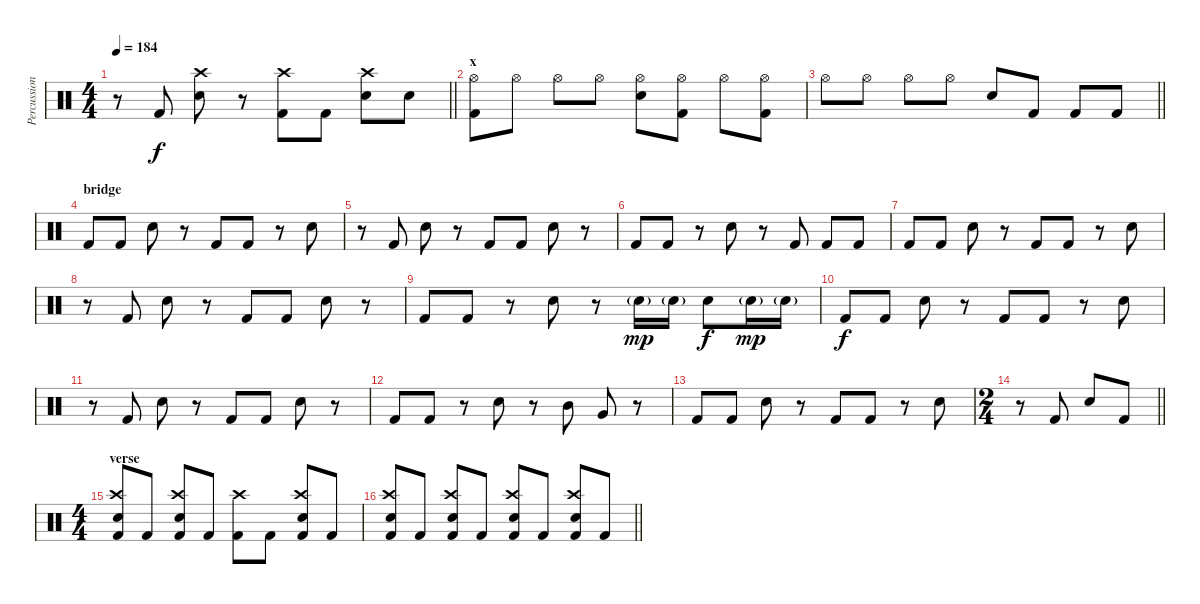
\track ("Percussion" "Percussion") {instrument percussion}
\staff {score}
\articulation defaults
\ts (4 4)
\tempo 184
\clef neutral
\barLineRight lightlight
\ks c
r.8{dy f} "Kick (hit) 2".8 ("Crash high (hit)" "Electric Snare (hit)").8 r.8 ("Crash high (hit)" "Kick (hit) 2").8 "Kick (hit) 2".8 ("Crash high (hit)" "Electric Snare (hit)").8 "Electric Snare (hit)".8 |
\section ("" "x")
("Hi-Hat (open)" "Kick (hit) 2").8 "Hi-Hat (open)".8 "Hi-Hat (open)".8 "Hi-Hat (open)".8 ("Hi-Hat (open)" "Electric Snare (hit)").8 ("Hi-Hat (open)" "Kick (hit) 2").8 "Hi-Hat (open)".8 ("Hi-Hat (open)" "Kick (hit) 2").8 |
\barLineRight lightlight "Hi-Hat (open)".8 "Hi-Hat (open)".8 "Hi-Hat (open)".8 "Hi-Hat (open)".8 "Electric Snare (hit)".8 "Kick (hit) 2".8 "Kick (hit) 2".8 "Kick (hit) 2".8
|
\section ("" "bridge")
"Kick (hit) 2".8 "Kick (hit) 2".8 "Electric Snare (hit)".8 r.8 "Kick (hit) 2".8 "Kick (hit) 2".8 r.8 "Electric Snare (hit)".8 |
r.8 "Kick (hit) 2".8 "Electric Snare (hit)".8 r.8 "Kick (hit) 2".8 "Kick (hit) 2".8 "Electric Snare (hit)".8 r.8 |
"Kick (hit) 2".8 "Kick (hit) 2".8 r.8 "Electric Snare (hit)".8 r.8 "Kick (hit) 2".8 "Kick (hit) 2".8 "Kick (hit) 2".8 |
"Kick (hit) 2".8 "Kick (hit) 2".8 "Electric Snare (hit)".8 r.8 "Kick (hit) 2".8 "Kick (hit) 2".8 r.8 "Electric Snare (hit)".8 |
r.8 "Kick (hit) 2".8 "Electric Snare (hit)".8 r.8 "Kick (hit) 2".8 "Kick (hit) 2".8 "Electric Snare (hit)".8 r.8 |
"Kick (hit) 2".8 "Kick (hit) 2".8 r.8 "Electric Snare (hit)".8 r.8 "Electric Snare (hit)"{g}.16{dy mp} "Electric Snare (hit)"{g}.16 "Electric Snare (hit)".8{dy f} "Electric Snare (hit)"{g}.16{dy mp} "Electric Snare (hit)"{g}.16 |
"Kick (hit) 2".8{dy f} "Kick (hit) 2".8 "Electric Snare (hit)".8 r.8 "Kick (hit) 2".8 "Kick (hit) 2".8 r.8 "Electric Snare (hit)".8 |
r.8 "Kick (hit) 2".8 "Electric Snare (hit)".8 r.8 "Kick (hit) 2".8 "Kick (hit) 2".8 "Electric Snare (hit)".8 r.8 |
"Kick (hit) 2".8 "Kick (hit) 2".8 r.8 "Electric Snare (hit)".8 r.8 "Mid Tom (hit)".8 "Very Low Tom (hit)".8 r.8 |
"Kick (hit) 2".8 "Kick (hit) 2".8 "Electric Snare (hit)".8 r.8 "Kick (hit) 2".8 "Kick (hit) 2".8 r.8 "Electric Snare (hit)".8 |
\ts (2 4)
\barLineRight lightlight
r.8 "Kick (hit) 2".8 "Electric Snare (hit)".8 "Kick (hit) 2".8 |
\ts (4 4)
\section ("" "verse")
("Crash high (hit)" "Electric Snare (hit)" "Kick (hit) 2").8 "Kick (hit) 2".8 ("Crash high (hit)" "Electric Snare (hit)" "Kick (hit) 2").8 "Kick (hit) 2".8 ("Crash high (hit)" "Kick (hit) 2").8 "Kick (hit) 2".8 ("Crash high (hit)" "Electric Snare (hit)" "Kick (hit) 2").8 "Kick (hit) 2".8 |
\barLineRight lightlight
("Crash high (hit)" "Electric Snare (hit)" "Kick (hit) 2").8 "Kick (hit) 2".8 ("Crash high (hit)" "Electric Snare (hit)" "Kick (hit) 2").8 "Kick (hit) 2".8 ("Crash high (hit)" "Electric Snare (hit)" "Kick (hit) 2").8 "Kick (hit) 2".8 ("Crash high (hit)" "Electric Snare (hit)" "Kick (hit) 2").8 "Kick (hit) 2".8
